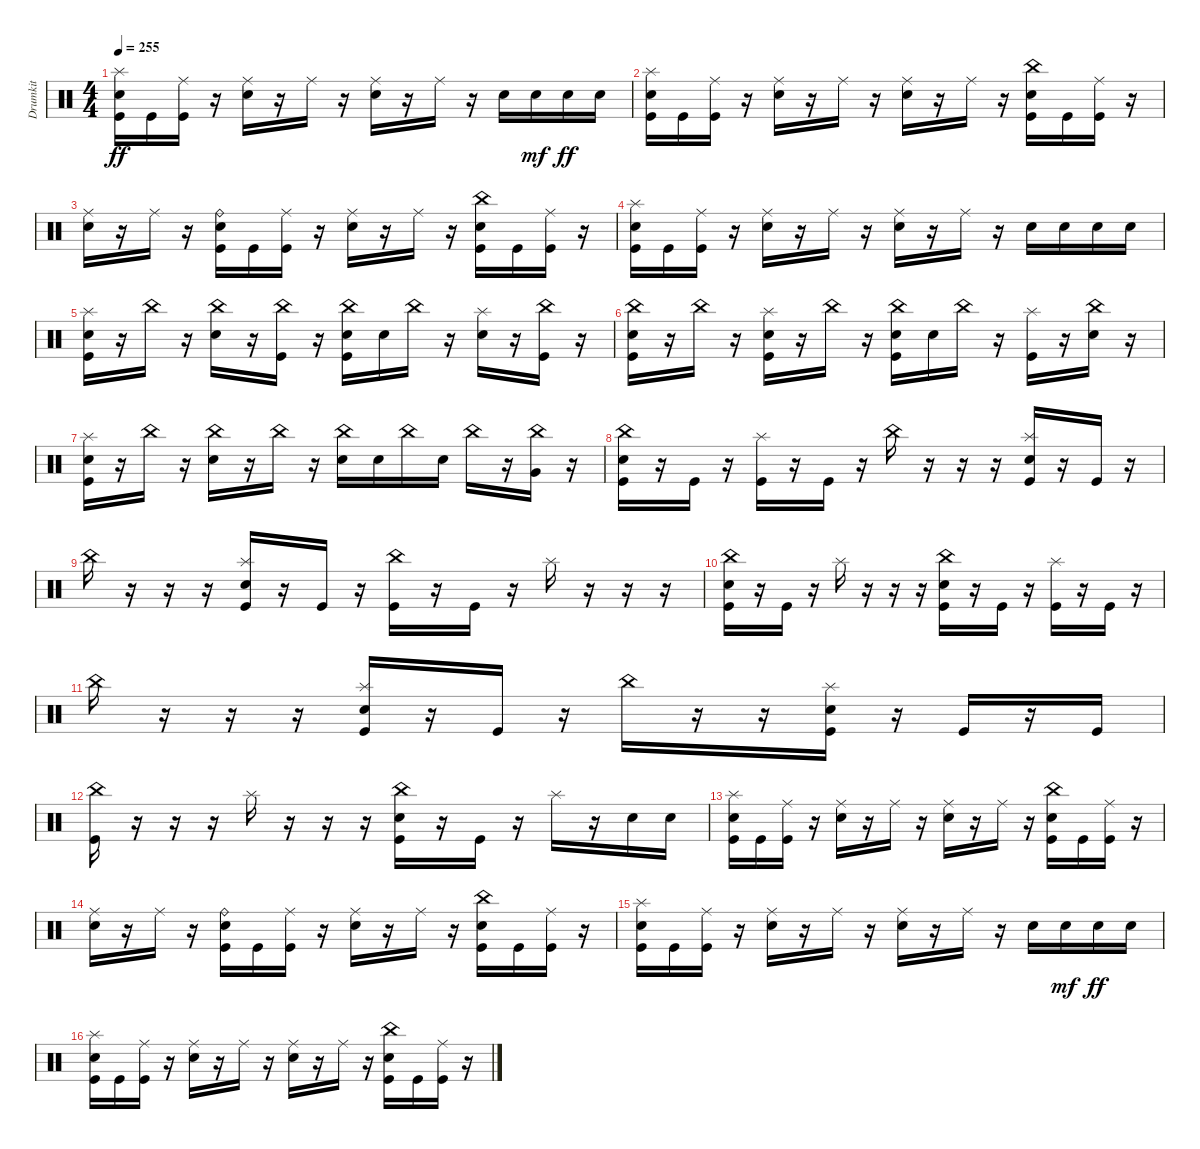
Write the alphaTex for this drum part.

\track ("Drumkit" "Drumkit") {instrument percussion}
\staff {score}
\articulation defaults
\ts (4 4)
\tempo 255
\clef neutral
\ks c
("Snare (hit) 2" "Splash (hit)" "Kick (hit)").16{dy ff} "Kick (hit)".16 ("Kick (hit)" "Ride (middle)").16 r.16 ("Snare (hit) 2" "Ride (middle)").16 r.16 "Ride (middle)".16 r.16 ("Snare (hit) 2" "Ride (middle)").16 r.16 "Ride (middle)".16 r.16 "Snare (hit) 2".16 "Snare (hit) 2".16{dy mf} "Snare (hit) 2".16{dy ff} "Snare (hit) 2".16 |
("Snare (hit) 2" "Splash (hit)" "Kick (hit)").16 "Kick (hit)".16 ("Kick (hit)" "Ride (middle)").16 r.16 ("Snare (hit) 2" "Ride (middle)").16 r.16 "Ride (middle)".16 r.16 ("Snare (hit) 2" "Ride (middle)").16 r.16 "Ride (middle)".16 r.16 ("Snare (hit) 2" "China (hit)" "Kick (hit)").16 "Kick (hit)".16 ("Kick (hit)" "Ride (middle)").16 r.16 |
("Snare (hit) 2" "Ride (middle)").16 r.16 "Ride (middle)".16 r.16 ("Snare (hit) 2" "Ride (bell)" "Kick (hit)").16 "Kick (hit)".16 ("Kick (hit)" "Ride (middle)").16 r.16 ("Snare (hit) 2" "Ride (middle)").16 r.16 "Ride (middle)".16 r.16 ("Snare (hit) 2" "China (hit)" "Kick (hit)").16 "Kick (hit)".16 ("Kick (hit)" "Ride (middle)").16 r.16 |
("Snare (hit) 2" "Splash (hit)" "Kick (hit)").16 "Kick (hit)".16 ("Kick (hit)" "Ride (middle)").16 r.16 ("Snare (hit) 2" "Ride (middle)").16 r.16 "Ride (middle)".16 r.16 ("Snare (hit) 2" "Ride (middle)").16 r.16 "Ride (middle)".16 r.16 "Snare (hit) 2".16 "Snare (hit) 2".16 "Snare (hit) 2".16 "Snare (hit) 2".16 |
("Splash (hit)" "Kick (hit)" "Snare (hit) 2").16 r.16 "China (hit)".16 r.16 ("Snare (hit) 2" "China (hit)").16 r.16 ("Kick (hit)" "China (hit)").16 r.16 ("Kick (hit)" "Snare (hit) 2" "China (hit)").16 "Snare (hit) 2".16 "China (hit)".16 r.16 ("Splash (hit)" "Snare (hit) 2").16 r.16 ("Kick (hit)" "China (hit)").16 r.16 |
("Snare (hit) 2" "Kick (hit)" "China (hit)").16 r.16 "China (hit)".16 r.16 ("Splash (hit)" "Kick (hit)" "Snare (hit) 2").16 r.16 "China (hit)".16 r.16 ("Kick (hit)" "Snare (hit) 2" "China (hit)").16 "Snare (hit) 2".16 "China (hit)".16 r.16 ("Splash (hit)" "Kick (hit)").16 r.16 ("China (hit)" "Snare (hit) 2").16 r.16 |
("Splash (hit)" "Kick (hit)" "Snare (hit) 2").16 r.16 "China (hit)".16 r.16 ("Snare (hit) 2" "China (hit)").16 r.16 "China (hit)".16 r.16 ("Snare (hit) 2" "China (hit)").16 "Snare (hit) 2".16 "China (hit)".16 "Snare (hit) 2".16 "China (hit)".16 r.16 ("Very Low Tom (hit)" "China (hit)").16 r.16 |
("China (hit)" "Snare (hit) 2" "Kick (hit)").16 r.16 "Kick (hit)".16 r.16 ("Splash (hit)" "Kick (hit)").16 r.16 "Kick (hit)".16 r.16 "China (hit)".16 r.16 r.16 r.16 ("Splash (hit)" "Snare (hit) 2" "Kick (hit)").16 r.16 "Kick (hit)".16 r.16 |
"China (hit)".16 r.16 r.16 r.16 ("Splash (hit)" "Snare (hit) 2" "Kick (hit)").16 r.16 "Kick (hit)".16 r.16 ("China (hit)" "Kick (hit)").16 r.16 "Kick (hit)".16 r.16 "Splash (hit)".16 r.16 r.16 r.16 |
("China (hit)" "Snare (hit) 2" "Kick (hit)").16 r.16 "Kick (hit)".16 r.16 "Splash (hit)".16 r.16 r.16 r.16 ("China (hit)" "Snare (hit) 2" "Kick (hit)").16 r.16 "Kick (hit)".16 r.16 ("Splash (hit)" "Kick (hit)").16 r.16 "Kick (hit)".16 r.16 |
"China (hit)".16 r.16 r.16 r.16 ("Splash (hit)" "Snare (hit) 2" "Kick (hit)").16 r.16 "Kick (hit)".16 r.16 "China (hit)".16 r.16 r.16 ("Splash (hit)" "Snare (hit) 2" "Kick (hit)").16 r.16 "Kick (hit)".16 r.16 "Kick (hit)".16 |
("China (hit)" "Kick (hit)").16 r.16 r.16 r.16 "Splash (hit)".16 r.16 r.16 r.16 ("China (hit)" "Snare (hit) 2" "Kick (hit)").16 r.16 "Kick (hit)".16 r.16 "Splash (hit)".16 r.16 "Snare (hit) 2".16 "Snare (hit) 2".16 |
("Snare (hit) 2" "Splash (hit)" "Kick (hit)").16 "Kick (hit)".16 ("Kick (hit)" "Ride (middle)").16 r.16 ("Snare (hit) 2" "Ride (middle)").16 r.16 "Ride (middle)".16 r.16 ("Snare (hit) 2" "Ride (middle)").16 r.16 "Ride (middle)".16 r.16 ("Snare (hit) 2" "China (hit)" "Kick (hit)").16 "Kick (hit)".16 ("Kick (hit)" "Ride (middle)").16 r.16 |
("Snare (hit) 2" "Ride (middle)").16 r.16 "Ride (middle)".16 r.16 ("Snare (hit) 2" "Ride (bell)" "Kick (hit)").16 "Kick (hit)".16 ("Kick (hit)" "Ride (middle)").16 r.16 ("Snare (hit) 2" "Ride (middle)").16 r.16 "Ride (middle)".16 r.16 ("Snare (hit) 2" "China (hit)" "Kick (hit)").16 "Kick (hit)".16 ("Kick (hit)" "Ride (middle)").16 r.16 |
("Snare (hit) 2" "Splash (hit)" "Kick (hit)").16 "Kick (hit)".16 ("Kick (hit)" "Ride (middle)").16 r.16 ("Snare (hit) 2" "Ride (middle)").16 r.16 "Ride (middle)".16 r.16 ("Snare (hit) 2" "Ride (middle)").16 r.16 "Ride (middle)".16 r.16 "Snare (hit) 2".16 "Snare (hit) 2".16{dy mf} "Snare (hit) 2".16{dy ff} "Snare (hit) 2".16 |
("Snare (hit) 2" "Splash (hit)" "Kick (hit)").16 "Kick (hit)".16 ("Kick (hit)" "Ride (middle)").16 r.16 ("Snare (hit) 2" "Ride (middle)").16 r.16 "Ride (middle)".16 r.16 ("Snare (hit) 2" "Ride (middle)").16 r.16 "Ride (middle)".16 r.16 ("Snare (hit) 2" "China (hit)" "Kick (hit)").16 "Kick (hit)".16 ("Kick (hit)" "Ride (middle)").16 r.16
